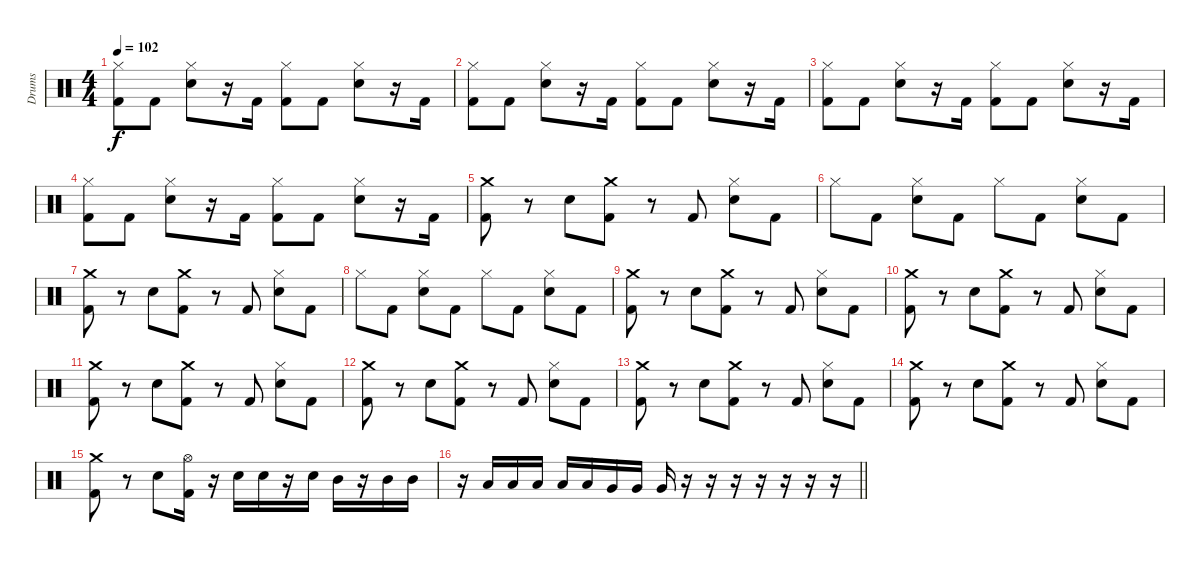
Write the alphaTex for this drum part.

\track ("Drums" "Drums") {instrument percussion}
\staff {score}
\articulation defaults
\ts (4 4)
\tempo 102
\clef neutral
\ks c
("Hi-Hat (closed)" "Kick (hit) 2").8{dy f} "Kick (hit) 2".8 ("Hi-Hat (closed)" "Snare (hit) 2").8 r.16 "Kick (hit) 2".16 ("Hi-Hat (closed)" "Kick (hit) 2").8 "Kick (hit) 2".8 ("Hi-Hat (closed)" "Snare (hit) 2").8 r.16 "Kick (hit) 2".16 |
("Hi-Hat (closed)" "Kick (hit) 2").8 "Kick (hit) 2".8 ("Hi-Hat (closed)" "Snare (hit) 2").8 r.16 "Kick (hit) 2".16 ("Hi-Hat (closed)" "Kick (hit) 2").8 "Kick (hit) 2".8 ("Hi-Hat (closed)" "Snare (hit) 2").8 r.16 "Kick (hit) 2".16 |
("Hi-Hat (closed)" "Kick (hit) 2").8 "Kick (hit) 2".8 ("Hi-Hat (closed)" "Snare (hit) 2").8 r.16 "Kick (hit) 2".16 ("Hi-Hat (closed)" "Kick (hit) 2").8 "Kick (hit) 2".8 ("Hi-Hat (closed)" "Snare (hit) 2").8 r.16 "Kick (hit) 2".16 |
("Hi-Hat (closed)" "Kick (hit) 2").8 "Kick (hit) 2".8 ("Hi-Hat (closed)" "Snare (hit) 2").8 r.16 "Kick (hit) 2".16 ("Hi-Hat (closed)" "Kick (hit) 2").8 "Kick (hit) 2".8 ("Hi-Hat (closed)" "Snare (hit) 2").8 r.16 "Kick (hit) 2".16 |
("Crash medium (hit)" "Kick (hit) 2").8 r.8 "Snare (hit) 2".8 ("Crash medium (hit)" "Kick (hit) 2").8 r.8 "Kick (hit) 2".8 ("Hi-Hat (closed)" "Snare (hit) 2").8 "Kick (hit) 2".8 |
"Hi-Hat (closed)".8 "Kick (hit) 2".8 ("Hi-Hat (closed)" "Snare (hit) 2").8 "Kick (hit) 2".8 "Hi-Hat (closed)".8 "Kick (hit) 2".8 ("Hi-Hat (closed)" "Snare (hit) 2").8 "Kick (hit) 2".8 |
("Crash medium (hit)" "Kick (hit) 2").8 r.8 "Snare (hit) 2".8 ("Crash medium (hit)" "Kick (hit) 2").8 r.8 "Kick (hit) 2".8 ("Hi-Hat (closed)" "Snare (hit) 2").8 "Kick (hit) 2".8 |
"Hi-Hat (closed)".8 "Kick (hit) 2".8 ("Hi-Hat (closed)" "Snare (hit) 2").8 "Kick (hit) 2".8 "Hi-Hat (closed)".8 "Kick (hit) 2".8 ("Hi-Hat (closed)" "Snare (hit) 2").8 "Kick (hit) 2".8 |
("Crash medium (hit)" "Kick (hit) 2").8 r.8 "Snare (hit) 2".8 ("Crash medium (hit)" "Kick (hit) 2").8 r.8 "Kick (hit) 2".8 ("Hi-Hat (closed)" "Snare (hit) 2").8 "Kick (hit) 2".8 |
("Crash medium (hit)" "Kick (hit) 2").8 r.8 "Snare (hit) 2".8 ("Crash medium (hit)" "Kick (hit) 2").8 r.8 "Kick (hit) 2".8 ("Hi-Hat (closed)" "Snare (hit) 2").8 "Kick (hit) 2".8 |
("Crash medium (hit)" "Kick (hit) 2").8 r.8 "Snare (hit) 2".8 ("Crash medium (hit)" "Kick (hit) 2").8 r.8 "Kick (hit) 2".8 ("Hi-Hat (closed)" "Snare (hit) 2").8 "Kick (hit) 2".8 |
("Crash medium (hit)" "Kick (hit) 2").8 r.8 "Snare (hit) 2".8 ("Crash medium (hit)" "Kick (hit) 2").8 r.8 "Kick (hit) 2".8 ("Hi-Hat (closed)" "Snare (hit) 2").8 "Kick (hit) 2".8 |
("Crash medium (hit)" "Kick (hit) 2").8 r.8 "Snare (hit) 2".8 ("Crash medium (hit)" "Kick (hit) 2").8 r.8 "Kick (hit) 2".8 ("Hi-Hat (closed)" "Snare (hit) 2").8 "Kick (hit) 2".8 |
("Crash medium (hit)" "Kick (hit) 2").8 r.8 "Snare (hit) 2".8 ("Crash medium (hit)" "Kick (hit) 2").8 r.8 "Kick (hit) 2".8 ("Hi-Hat (closed)" "Snare (hit) 2").8 "Kick (hit) 2".8 |
("Crash medium (hit)" "Kick (hit) 2").8 r.8 "Snare (hit) 2".8 ("Hi-Hat (open)" "Kick (hit) 2").16 r.16 "Snare (hit) 2".16 "Snare (hit) 2".16 r.16 "Snare (hit) 2".16 "Mid Tom (hit)".16 r.16 "Mid Tom (hit)".16 "Mid Tom (hit)".16 |
\barLineRight lightlight
r.16 "Low Tom (hit)".16 "Low Tom (hit)".16 "Low Tom (hit)".16 "Low Tom (hit)".16 "Low Tom (hit)".16 "Very Low Tom (hit)".16 "Very Low Tom (hit)".16 "Very Low Tom (hit)".16 r.16 r.16 r.16 r.16 r.16 r.16 r.16
